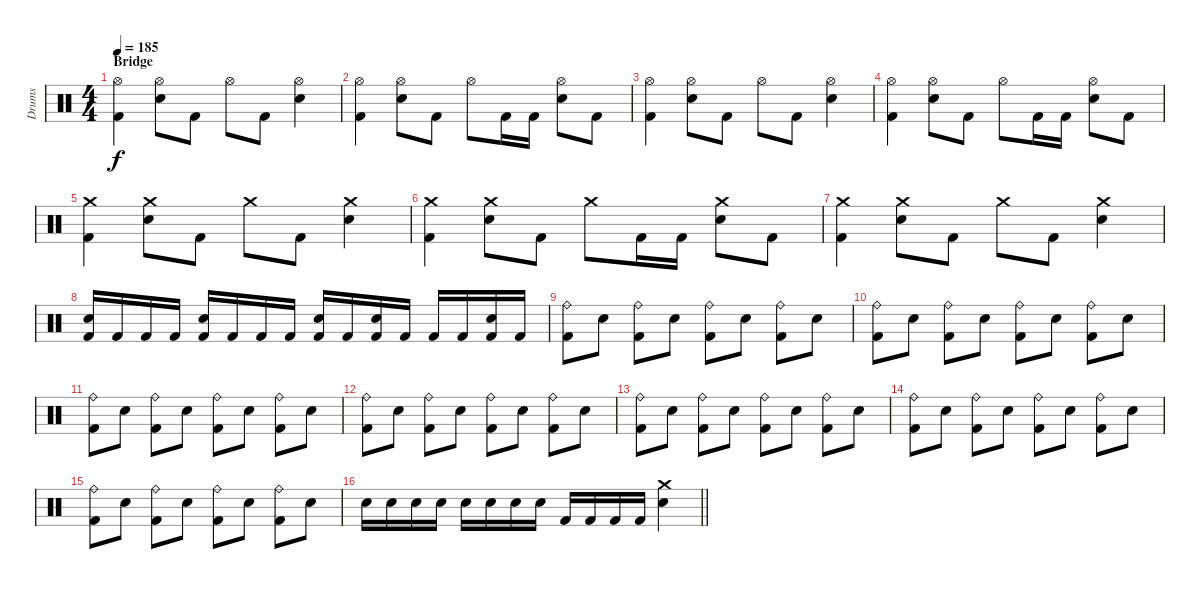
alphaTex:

\track ("Drums" "Drums") {instrument percussion}
\staff {score}
\articulation defaults
\ts (4 4)
\section ("" "Bridge")
\tempo 185
\clef neutral
\ks c
("Hi-Hat (open)" "Kick (hit) 2").4{dy f} ("Hi-Hat (open)" "Snare (hit) 2").8 "Kick (hit) 2".8 "Hi-Hat (open)".8 "Kick (hit) 2".8 ("Hi-Hat (open)" "Snare (hit) 2").4 |
("Hi-Hat (open)" "Kick (hit) 2").4 ("Hi-Hat (open)" "Snare (hit) 2").8 "Kick (hit) 2".8 "Hi-Hat (open)".8 "Kick (hit) 2".16 "Kick (hit) 2".16 ("Hi-Hat (open)" "Snare (hit) 2").8 "Kick (hit) 2".8 |
("Hi-Hat (open)" "Kick (hit) 2").4 ("Hi-Hat (open)" "Snare (hit) 2").8 "Kick (hit) 2".8 "Hi-Hat (open)".8 "Kick (hit) 2".8 ("Hi-Hat (open)" "Snare (hit) 2").4 |
("Hi-Hat (open)" "Kick (hit) 2").4 ("Hi-Hat (open)" "Snare (hit) 2").8 "Kick (hit) 2".8 "Hi-Hat (open)".8 "Kick (hit) 2".16 "Kick (hit) 2".16 ("Hi-Hat (open)" "Snare (hit) 2").8 "Kick (hit) 2".8 |
("Crash medium (hit)" "Kick (hit) 2").4 ("Crash medium (hit)" "Snare (hit) 2").8 "Kick (hit) 2".8 "Crash medium (hit)".8 "Kick (hit) 2".8 ("Crash medium (hit)" "Snare (hit) 2").4 |
("Crash medium (hit)" "Kick (hit) 2").4 ("Crash medium (hit)" "Snare (hit) 2").8 "Kick (hit) 2".8 "Crash medium (hit)".8 "Kick (hit) 2".16 "Kick (hit) 2".16 ("Crash medium (hit)" "Snare (hit) 2").8 "Kick (hit) 2".8 |
("Crash medium (hit)" "Kick (hit) 2").4 ("Crash medium (hit)" "Snare (hit) 2").8 "Kick (hit) 2".8 "Crash medium (hit)".8 "Kick (hit) 2".8 ("Crash medium (hit)" "Snare (hit) 2").4 |
("Snare (hit) 2" "Kick (hit) 2").16 "Kick (hit) 2".16 "Kick (hit) 2".16 "Kick (hit) 2".16 ("Snare (hit) 2" "Kick (hit) 2").16 "Kick (hit) 2".16 "Kick (hit) 2".16 "Kick (hit) 2".16 ("Snare (hit) 2" "Kick (hit) 2").16 "Kick (hit) 2".16 ("Snare (hit) 2" "Kick (hit) 2").16 "Kick (hit) 2".16 "Kick (hit) 2".16 "Kick (hit) 2".16 ("Snare (hit) 2" "Kick (hit) 2").16 "Kick (hit) 2".16 |
("Ride (bell)" "Kick (hit) 2").8 "Snare (hit) 2".8 ("Ride (bell)" "Kick (hit) 2").8 "Snare (hit) 2".8 ("Ride (bell)" "Kick (hit) 2").8 "Snare (hit) 2".8 ("Ride (bell)" "Kick (hit) 2").8 "Snare (hit) 2".8 |
("Ride (bell)" "Kick (hit) 2").8 "Snare (hit) 2".8 ("Ride (bell)" "Kick (hit) 2").8 "Snare (hit) 2".8 ("Ride (bell)" "Kick (hit) 2").8 "Snare (hit) 2".8 ("Ride (bell)" "Kick (hit) 2").8 "Snare (hit) 2".8 |
("Ride (bell)" "Kick (hit) 2").8 "Snare (hit) 2".8 ("Ride (bell)" "Kick (hit) 2").8 "Snare (hit) 2".8 ("Ride (bell)" "Kick (hit) 2").8 "Snare (hit) 2".8 ("Ride (bell)" "Kick (hit) 2").8 "Snare (hit) 2".8 |
("Ride (bell)" "Kick (hit) 2").8 "Snare (hit) 2".8 ("Ride (bell)" "Kick (hit) 2").8 "Snare (hit) 2".8 ("Ride (bell)" "Kick (hit) 2").8 "Snare (hit) 2".8 ("Ride (bell)" "Kick (hit) 2").8 "Snare (hit) 2".8 |
("Ride (bell)" "Kick (hit) 2").8 "Snare (hit) 2".8 ("Ride (bell)" "Kick (hit) 2").8 "Snare (hit) 2".8 ("Ride (bell)" "Kick (hit) 2").8 "Snare (hit) 2".8 ("Ride (bell)" "Kick (hit) 2").8 "Snare (hit) 2".8 |
("Ride (bell)" "Kick (hit) 2").8 "Snare (hit) 2".8 ("Ride (bell)" "Kick (hit) 2").8 "Snare (hit) 2".8 ("Ride (bell)" "Kick (hit) 2").8 "Snare (hit) 2".8 ("Ride (bell)" "Kick (hit) 2").8 "Snare (hit) 2".8 |
("Ride (bell)" "Kick (hit) 2").8 "Snare (hit) 2".8 ("Ride (bell)" "Kick (hit) 2").8 "Snare (hit) 2".8 ("Ride (bell)" "Kick (hit) 2").8 "Snare (hit) 2".8 ("Ride (bell)" "Kick (hit) 2").8 "Snare (hit) 2".8 |
\barLineRight lightlight "Snare (hit) 2".16 "Snare (hit) 2".16 "Snare (hit) 2".16 "Snare (hit) 2".16 "Snare (hit) 2".16 "Snare (hit) 2".16 "Snare (hit) 2".16 "Snare (hit) 2".16 "Kick (hit) 2".16 "Kick (hit) 2".16 "Kick (hit) 2".16 "Kick (hit) 2".16
("Crash medium (hit)" "Snare (hit) 2").4
